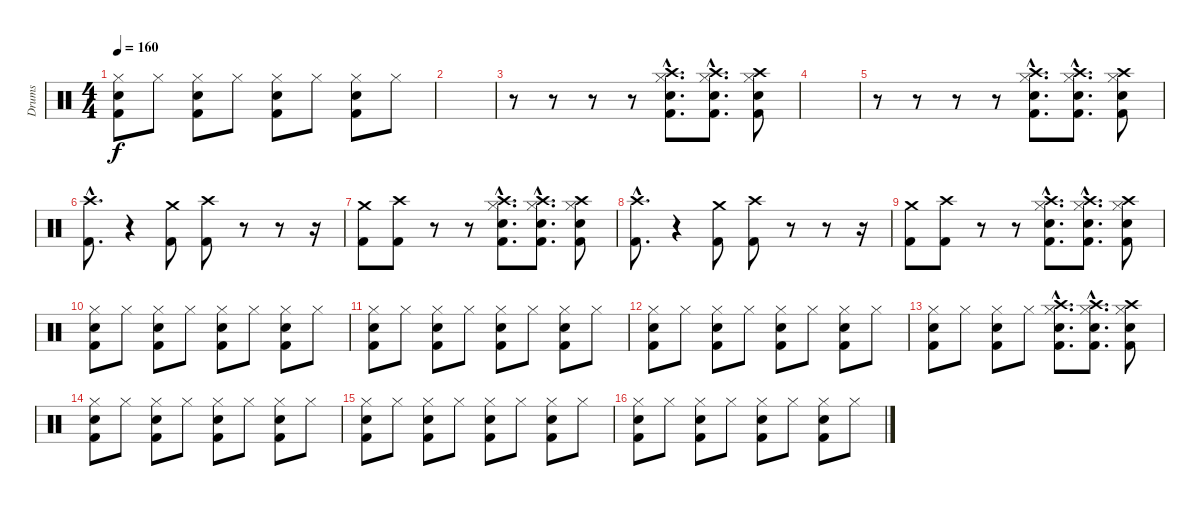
\track ("Drums" "Drums") {instrument percussion}
\staff {score}
\articulation defaults
\ts (4 4)
\tempo 160
\clef neutral
\ks c
("Hi-Hat (closed)" "Kick (hit) 2" "Electric Snare (hit)").8{dy f} "Hi-Hat (closed)".8 ("Hi-Hat (closed)" "Kick (hit) 2" "Electric Snare (hit)").8 "Hi-Hat (closed)".8 ("Hi-Hat (closed)" "Kick (hit) 2" "Electric Snare (hit)").8 "Hi-Hat (closed)".8 ("Hi-Hat (closed)" "Kick (hit) 2" "Electric Snare (hit)").8 "Hi-Hat (closed)".8 |
|
r.8 r.8 r.8 r.8 ("Hi-Hat (closed)"{hac} "Kick (hit) 2"{hac} "Electric Snare (hit)"{hac} "Crash high (hit)"{hac}).8{d} ("Hi-Hat (closed)"{hac} "Kick (hit) 2"{hac} "Electric Snare (hit)"{hac} "Crash high (hit)"{hac}).8{d} ("Kick (hit) 2" "Hi-Hat (closed)" "Electric Snare (hit)" "Crash high (hit)").8 |
|
r.8 r.8 r.8 r.8 ("Hi-Hat (closed)"{hac} "Kick (hit) 2"{hac} "Electric Snare (hit)"{hac} "Crash high (hit)"{hac}).8{d} ("Hi-Hat (closed)"{hac} "Kick (hit) 2"{hac} "Electric Snare (hit)"{hac} "Crash high (hit)"{hac}).8{d} ("Kick (hit) 2" "Hi-Hat (closed)" "Electric Snare (hit)" "Crash high (hit)").8 |
("Crash high (hit)"{hac} "Kick (hit) 2"{hac}).8{d} r.4 ("Crash medium (hit)" "Kick (hit) 2").8 ("Crash high (hit)" "Kick (hit) 2").8 r.8 r.8 r.16 |
("Crash medium (hit)" "Kick (hit) 2").8 ("Crash high (hit)" "Kick (hit) 2").8 r.8 r.8 ("Hi-Hat (closed)"{hac} "Kick (hit) 2"{hac} "Electric Snare (hit)"{hac} "Crash high (hit)"{hac}).8{d} ("Hi-Hat (closed)"{hac} "Kick (hit) 2"{hac} "Electric Snare (hit)"{hac} "Crash high (hit)"{hac}).8{d} ("Kick (hit) 2" "Hi-Hat (closed)" "Electric Snare (hit)" "Crash high (hit)").8 |
("Crash high (hit)"{hac} "Kick (hit) 2"{hac}).8{d} r.4 ("Crash medium (hit)" "Kick (hit) 2").8 ("Crash high (hit)" "Kick (hit) 2").8 r.8 r.8 r.16 |
("Crash medium (hit)" "Kick (hit) 2").8 ("Crash high (hit)" "Kick (hit) 2").8 r.8 r.8 ("Hi-Hat (closed)"{hac} "Kick (hit) 2"{hac} "Electric Snare (hit)"{hac} "Crash high (hit)"{hac}).8{d} ("Hi-Hat (closed)"{hac} "Kick (hit) 2"{hac} "Electric Snare (hit)"{hac} "Crash high (hit)"{hac}).8{d} ("Kick (hit) 2" "Hi-Hat (closed)" "Electric Snare (hit)" "Crash high (hit)").8 |
("Hi-Hat (closed)" "Kick (hit) 2" "Electric Snare (hit)").8 "Hi-Hat (closed)".8 ("Hi-Hat (closed)" "Kick (hit) 2" "Electric Snare (hit)").8 "Hi-Hat (closed)".8 ("Hi-Hat (closed)" "Kick (hit) 2" "Electric Snare (hit)").8 "Hi-Hat (closed)".8 ("Hi-Hat (closed)" "Kick (hit) 2" "Electric Snare (hit)").8 "Hi-Hat (closed)".8 |
("Hi-Hat (closed)" "Kick (hit) 2" "Electric Snare (hit)").8 "Hi-Hat (closed)".8 ("Hi-Hat (closed)" "Kick (hit) 2" "Electric Snare (hit)").8 "Hi-Hat (closed)".8 ("Hi-Hat (closed)" "Kick (hit) 2" "Electric Snare (hit)").8 "Hi-Hat (closed)".8 ("Hi-Hat (closed)" "Kick (hit) 2" "Electric Snare (hit)").8 "Hi-Hat (closed)".8 |
("Hi-Hat (closed)" "Kick (hit) 2" "Electric Snare (hit)").8 "Hi-Hat (closed)".8 ("Hi-Hat (closed)" "Kick (hit) 2" "Electric Snare (hit)").8 "Hi-Hat (closed)".8 ("Hi-Hat (closed)" "Kick (hit) 2" "Electric Snare (hit)").8 "Hi-Hat (closed)".8 ("Hi-Hat (closed)" "Kick (hit) 2" "Electric Snare (hit)").8 "Hi-Hat (closed)".8 |
("Hi-Hat (closed)" "Kick (hit) 2" "Electric Snare (hit)").8 "Hi-Hat (closed)".8 ("Hi-Hat (closed)" "Kick (hit) 2" "Electric Snare (hit)").8 "Hi-Hat (closed)".8 ("Hi-Hat (closed)"{hac} "Kick (hit) 2"{hac} "Electric Snare (hit)"{hac} "Crash high (hit)"{hac}).8{d} ("Hi-Hat (closed)"{hac} "Kick (hit) 2"{hac} "Electric Snare (hit)"{hac} "Crash high (hit)"{hac}).8{d} ("Kick (hit) 2" "Hi-Hat (closed)" "Electric Snare (hit)" "Crash high (hit)").8 |
("Hi-Hat (closed)" "Kick (hit) 2" "Electric Snare (hit)").8 "Hi-Hat (closed)".8 ("Hi-Hat (closed)" "Kick (hit) 2" "Electric Snare (hit)").8 "Hi-Hat (closed)".8 ("Hi-Hat (closed)" "Kick (hit) 2" "Electric Snare (hit)").8 "Hi-Hat (closed)".8 ("Hi-Hat (closed)" "Kick (hit) 2" "Electric Snare (hit)").8 "Hi-Hat (closed)".8 |
("Hi-Hat (closed)" "Kick (hit) 2" "Electric Snare (hit)").8 "Hi-Hat (closed)".8 ("Hi-Hat (closed)" "Kick (hit) 2" "Electric Snare (hit)").8 "Hi-Hat (closed)".8 ("Hi-Hat (closed)" "Kick (hit) 2" "Electric Snare (hit)").8 "Hi-Hat (closed)".8 ("Hi-Hat (closed)" "Kick (hit) 2" "Electric Snare (hit)").8 "Hi-Hat (closed)".8 |
("Hi-Hat (closed)" "Kick (hit) 2" "Electric Snare (hit)").8 "Hi-Hat (closed)".8 ("Hi-Hat (closed)" "Kick (hit) 2" "Electric Snare (hit)").8 "Hi-Hat (closed)".8 ("Hi-Hat (closed)" "Kick (hit) 2" "Electric Snare (hit)").8 "Hi-Hat (closed)".8 ("Hi-Hat (closed)" "Kick (hit) 2" "Electric Snare (hit)").8 "Hi-Hat (closed)".8
